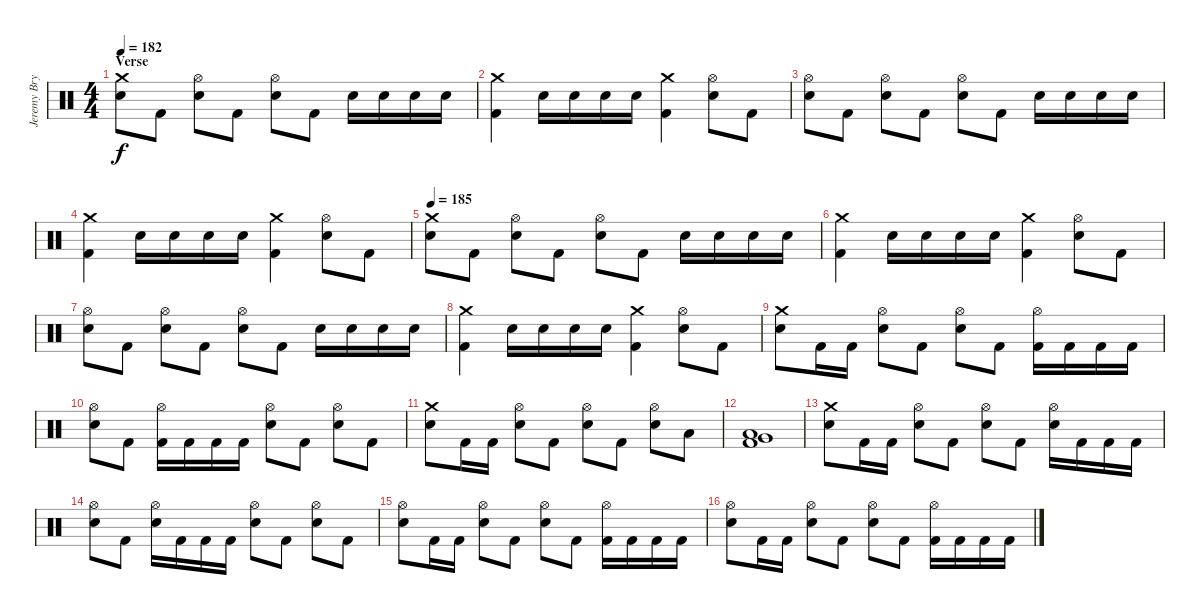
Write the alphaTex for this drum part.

\track ("Jeremy Bryan - Drums" "Jeremy Bry") {instrument percussion}
\staff {score}
\articulation defaults
\ts (4 4)
\section ("" "Verse")
\tempo 182
\clef neutral
\ks c
("Crash medium (hit)" "Electric Snare (hit)").8{dy f} "Kick (hit) 2".8 ("Hi-Hat (open)" "Electric Snare (hit)").8 "Kick (hit) 2".8 ("Hi-Hat (open)" "Electric Snare (hit)").8 "Kick (hit) 2".8 "Electric Snare (hit)".16 "Electric Snare (hit)".16 "Electric Snare (hit)".16 "Electric Snare (hit)".16 |
("Crash medium (hit)" "Kick (hit) 2").4 "Electric Snare (hit)".16 "Electric Snare (hit)".16 "Electric Snare (hit)".16 "Electric Snare (hit)".16 ("Crash medium (hit)" "Kick (hit) 2").4 ("Hi-Hat (open)" "Electric Snare (hit)").8 "Kick (hit) 2".8 |
("Hi-Hat (open)" "Electric Snare (hit)").8 "Kick (hit) 2".8 ("Hi-Hat (open)" "Electric Snare (hit)").8 "Kick (hit) 2".8 ("Hi-Hat (open)" "Electric Snare (hit)").8 "Kick (hit) 2".8 "Electric Snare (hit)".16 "Electric Snare (hit)".16 "Electric Snare (hit)".16 "Electric Snare (hit)".16 |
("Crash medium (hit)" "Kick (hit) 2").4 "Electric Snare (hit)".16 "Electric Snare (hit)".16 "Electric Snare (hit)".16 "Electric Snare (hit)".16 ("Crash medium (hit)" "Kick (hit) 2").4 ("Hi-Hat (open)" "Electric Snare (hit)").8 "Kick (hit) 2".8 |
\tempo 185
("Crash medium (hit)" "Electric Snare (hit)").8 "Kick (hit) 2".8 ("Hi-Hat (open)" "Electric Snare (hit)").8 "Kick (hit) 2".8 ("Hi-Hat (open)" "Electric Snare (hit)").8 "Kick (hit) 2".8 "Electric Snare (hit)".16 "Electric Snare (hit)".16 "Electric Snare (hit)".16 "Electric Snare (hit)".16 |
("Crash medium (hit)" "Kick (hit) 2").4 "Electric Snare (hit)".16 "Electric Snare (hit)".16 "Electric Snare (hit)".16 "Electric Snare (hit)".16 ("Crash medium (hit)" "Kick (hit) 2").4 ("Hi-Hat (open)" "Electric Snare (hit)").8 "Kick (hit) 2".8 |
("Hi-Hat (open)" "Electric Snare (hit)").8 "Kick (hit) 2".8 ("Hi-Hat (open)" "Electric Snare (hit)").8 "Kick (hit) 2".8 ("Hi-Hat (open)" "Electric Snare (hit)").8 "Kick (hit) 2".8 "Electric Snare (hit)".16 "Electric Snare (hit)".16 "Electric Snare (hit)".16 "Electric Snare (hit)".16 |
("Crash medium (hit)" "Kick (hit) 2").4 "Electric Snare (hit)".16 "Electric Snare (hit)".16 "Electric Snare (hit)".16 "Electric Snare (hit)".16 ("Crash medium (hit)" "Kick (hit) 2").4 ("Hi-Hat (open)" "Electric Snare (hit)").8 "Kick (hit) 2".8 |
("Crash medium (hit)" "Electric Snare (hit)").8 "Kick (hit) 2".16 "Kick (hit) 2".16 ("Hi-Hat (open)" "Electric Snare (hit)").8 "Kick (hit) 2".8 ("Hi-Hat (open)" "Electric Snare (hit)").8 "Kick (hit) 2".8 ("Hi-Hat (open)" "Kick (hit) 2").16 "Kick (hit) 2".16 "Kick (hit) 2".16 "Kick (hit) 2".16 |
("Hi-Hat (open)" "Electric Snare (hit)").8 "Kick (hit) 2".8 ("Hi-Hat (open)" "Kick (hit) 2").16 "Kick (hit) 2".16 "Kick (hit) 2".16 "Kick (hit) 2".16 ("Hi-Hat (open)" "Electric Snare (hit)").8 "Kick (hit) 2".8 ("Hi-Hat (open)" "Electric Snare (hit)").8 "Kick (hit) 2".8 |
("Crash medium (hit)" "Electric Snare (hit)").8 "Kick (hit) 2".16 "Kick (hit) 2".16 ("Hi-Hat (open)" "Electric Snare (hit)").8 "Kick (hit) 2".8 ("Hi-Hat (open)" "Electric Snare (hit)").8 "Kick (hit) 2".8 ("Hi-Hat (open)" "Electric Snare (hit)").8 "Low Tom (hit)".8 |
("Low Tom (hit)" "Very Low Tom (hit)" "Kick (hit) 2").1 |
("Crash medium (hit)" "Electric Snare (hit)").8 "Kick (hit) 2".16 "Kick (hit) 2".16 ("Hi-Hat (open)" "Electric Snare (hit)").8 "Kick (hit) 2".8 ("Hi-Hat (open)" "Electric Snare (hit)").8 "Kick (hit) 2".8 ("Hi-Hat (open)" "Electric Snare (hit)").16 "Kick (hit) 2".16 "Kick (hit) 2".16 "Kick (hit) 2".16 |
("Hi-Hat (open)" "Electric Snare (hit)").8 "Kick (hit) 2".8 ("Hi-Hat (open)" "Electric Snare (hit)").16 "Kick (hit) 2".16 "Kick (hit) 2".16 "Kick (hit) 2".16 ("Hi-Hat (open)" "Electric Snare (hit)").8 "Kick (hit) 2".8 ("Hi-Hat (open)" "Electric Snare (hit)").8 "Kick (hit) 2".8 |
("Hi-Hat (open)" "Electric Snare (hit)").8 "Kick (hit) 2".16 "Kick (hit) 2".16 ("Hi-Hat (open)" "Electric Snare (hit)").8 "Kick (hit) 2".8 ("Hi-Hat (open)" "Electric Snare (hit)").8 "Kick (hit) 2".8 ("Hi-Hat (open)" "Kick (hit) 2").16 "Kick (hit) 2".16 "Kick (hit) 2".16 "Kick (hit) 2".16 |
("Hi-Hat (open)" "Electric Snare (hit)").8 "Kick (hit) 2".16 "Kick (hit) 2".16 ("Hi-Hat (open)" "Electric Snare (hit)").8 "Kick (hit) 2".8 ("Hi-Hat (open)" "Electric Snare (hit)").8 "Kick (hit) 2".8 ("Hi-Hat (open)" "Kick (hit) 2").16 "Kick (hit) 2".16 "Kick (hit) 2".16 "Kick (hit) 2".16
